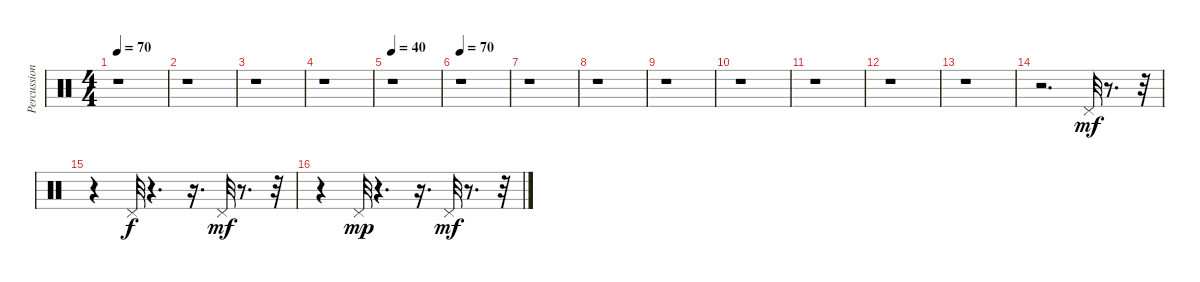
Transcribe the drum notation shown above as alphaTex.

\track ("Percussioni" "Percussion") {instrument percussion}
\staff {score}
\articulation defaults
\ts (4 4)
\tempo 70
\clef neutral
\ks c
r.1{dy mf} |
r.1 |
r.1 |
r.1 |
\tempo 40
r.1 |
\tempo 70
r.1 |
r.1 |
r.1 |
r.1 |
r.1 |
r.1 |
r.1 |
r.1 |
r.2{d} "Pedal Hi-Hat (hit)".32 r.8{d} r.32 |
r.4 "Pedal Hi-Hat (hit)".32{dy f} r.4{d} r.16{d} "Pedal Hi-Hat (hit)".32{dy mf} r.8{d} r.32 |
r.4 "Pedal Hi-Hat (hit)".32{dy mp} r.4{d} r.16{d} "Pedal Hi-Hat (hit)".32{dy mf} r.8{d} r.32
